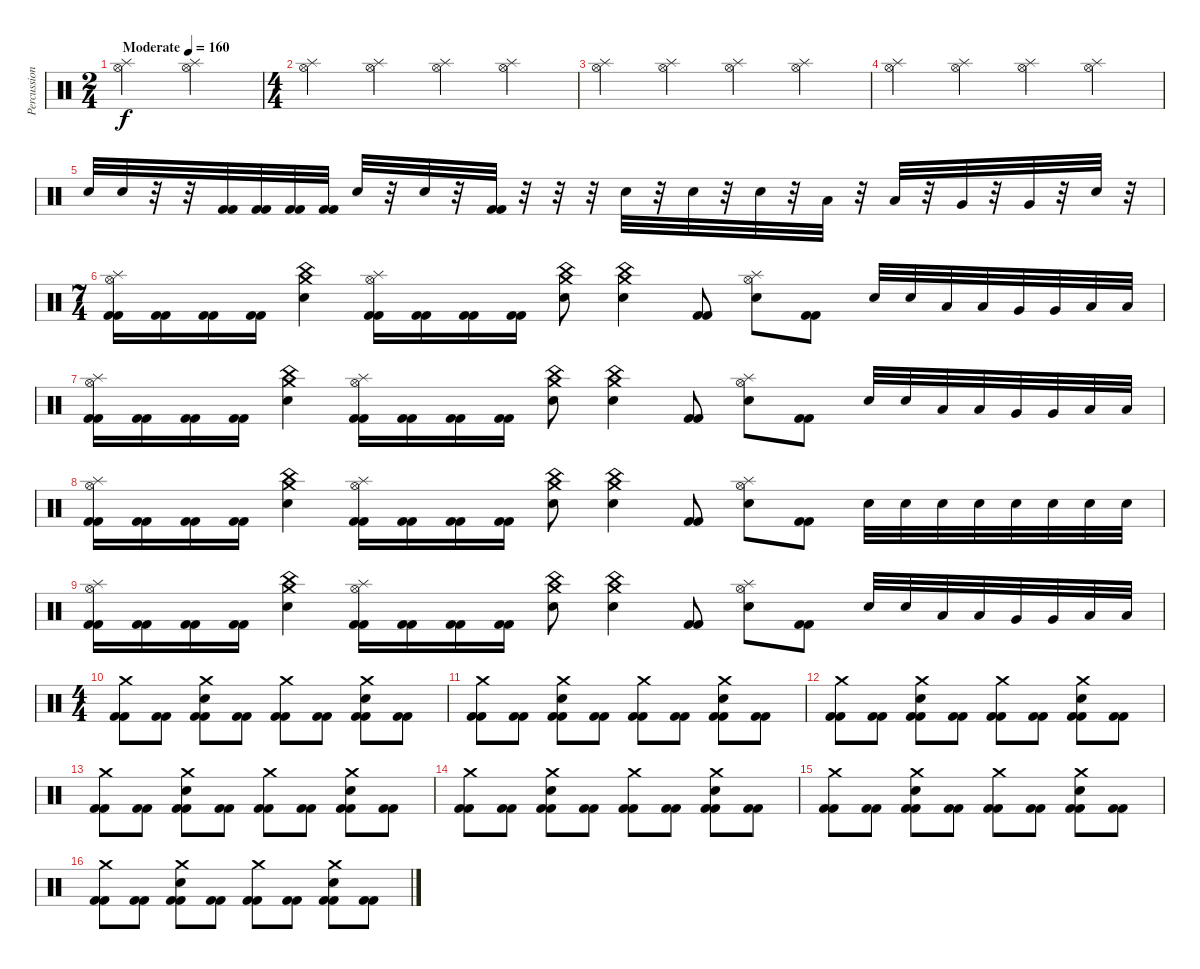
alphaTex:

\track ("Percussion" "Percussion") {instrument percussion}
\staff {score}
\articulation defaults
\ts (2 4)
\tempo (160 "Moderate")
\clef neutral
\ks c
("Hi-Hat (open)" "Splash (hit)").4{dy f} ("Hi-Hat (open)" "Splash (hit)").4 |
\ts (4 4)
("Splash (hit)" "Hi-Hat (open)").4 ("Splash (hit)" "Hi-Hat (open)").4 ("Splash (hit)" "Hi-Hat (open)").4 ("Splash (hit)" "Hi-Hat (open)").4 |
("Splash (hit)" "Hi-Hat (open)").4 ("Splash (hit)" "Hi-Hat (open)").4 ("Splash (hit)" "Hi-Hat (open)").4 ("Splash (hit)" "Hi-Hat (open)").4 |
("Splash (hit)" "Hi-Hat (open)").4 ("Splash (hit)" "Hi-Hat (open)").4 ("Splash (hit)" "Hi-Hat (open)").4 ("Splash (hit)" "Hi-Hat (open)").4 |
"Snare (hit) 2".32 "Snare (hit) 2".32 r.32 r.32 ("Kick (hit) 2" "Kick (hit) 2").32 ("Kick (hit) 2" "Kick (hit) 2").32 ("Kick (hit) 2" "Kick (hit) 2").32 ("Kick (hit) 2" "Kick (hit) 2").32 "Snare (hit) 2".32 r.32 "Snare (hit) 2".32 r.32 ("Kick (hit) 2" "Kick (hit) 2").32 r.32 r.32 r.32 "Electric Snare (hit)".32 r.32 "Electric Snare (hit)".32 r.32 "Electric Snare (hit)".32 r.32 "Low Tom (hit)".32 r.32 "Low Tom (hit)".32 r.32 "Very Low Tom (hit)".32 r.32 "Very Low Tom (hit)".32 r.32 "Electric Snare (hit)".32 r.32 |
\ts (7 4)
("Hi-Hat (open)" "Splash (hit)" "Kick (hit) 2" "Kick (hit) 2").16 ("Kick (hit) 2" "Kick (hit) 2").16 ("Kick (hit) 2" "Kick (hit) 2").16 ("Kick (hit) 2" "Kick (hit) 2").16 ("Crash medium (hit)" "China (hit)" "Electric Snare (hit)").4 ("Hi-Hat (open)" "Splash (hit)" "Kick (hit) 2" "Kick (hit) 2").16 ("Kick (hit) 2" "Kick (hit) 2").16 ("Kick (hit) 2" "Kick (hit) 2").16 ("Kick (hit) 2" "Kick (hit) 2").16 ("Electric Snare (hit)" "China (hit)" "Crash medium (hit)").8 ("Electric Snare (hit)" "China (hit)" "Crash medium (hit)").4 ("Kick (hit) 2" "Kick (hit) 2").8 ("Splash (hit)" "Hi-Hat (open)" "Electric Snare (hit)").8 ("Kick (hit) 2" "Kick (hit) 2").8 "Electric Snare (hit)".32 "Electric Snare (hit)".32 "Low Tom (hit)".32 "Low Tom (hit)".32 "Very Low Tom (hit)".32 "Very Low Tom (hit)".32 "Low Floor Tom (hit)".32 "Low Floor Tom (hit)".32 |
("Hi-Hat (open)" "Splash (hit)" "Kick (hit) 2" "Kick (hit) 2").16 ("Kick (hit) 2" "Kick (hit) 2").16 ("Kick (hit) 2" "Kick (hit) 2").16 ("Kick (hit) 2" "Kick (hit) 2").16 ("Crash medium (hit)" "China (hit)" "Electric Snare (hit)").4 ("Hi-Hat (open)" "Splash (hit)" "Kick (hit) 2" "Kick (hit) 2").16 ("Kick (hit) 2" "Kick (hit) 2").16 ("Kick (hit) 2" "Kick (hit) 2").16 ("Kick (hit) 2" "Kick (hit) 2").16 ("Electric Snare (hit)" "China (hit)" "Crash medium (hit)").8 ("Electric Snare (hit)" "China (hit)" "Crash medium (hit)").4 ("Kick (hit) 2" "Kick (hit) 2").8 ("Hi-Hat (open)" "Splash (hit)" "Electric Snare (hit)").8 ("Kick (hit) 2" "Kick (hit) 2").8 "Electric Snare (hit)".32 "Electric Snare (hit)".32 "Low Tom (hit)".32 "Low Tom (hit)".32 "Very Low Tom (hit)".32 "Very Low Tom (hit)".32 "Low Floor Tom (hit)".32 "Low Floor Tom (hit)".32 |
("Hi-Hat (open)" "Splash (hit)" "Kick (hit) 2" "Kick (hit) 2").16 ("Kick (hit) 2" "Kick (hit) 2").16 ("Kick (hit) 2" "Kick (hit) 2").16 ("Kick (hit) 2" "Kick (hit) 2").16 ("Crash medium (hit)" "China (hit)" "Electric Snare (hit)").4 ("Hi-Hat (open)" "Splash (hit)" "Kick (hit) 2" "Kick (hit) 2").16 ("Kick (hit) 2" "Kick (hit) 2").16 ("Kick (hit) 2" "Kick (hit) 2").16 ("Kick (hit) 2" "Kick (hit) 2").16 ("Electric Snare (hit)" "China (hit)" "Crash medium (hit)").8 ("Electric Snare (hit)" "China (hit)" "Crash medium (hit)").4 ("Kick (hit) 2" "Kick (hit) 2").8 ("Hi-Hat (open)" "Splash (hit)" "Electric Snare (hit)").8 ("Kick (hit) 2" "Kick (hit) 2").8 "Electric Snare (hit)".32 "Electric Snare (hit)".32 "Electric Snare (hit)".32 "Electric Snare (hit)".32 "Electric Snare (hit)".32 "Electric Snare (hit)".32 "Electric Snare (hit)".32 "Electric Snare (hit)".32 |
("Hi-Hat (open)" "Splash (hit)" "Kick (hit) 2" "Kick (hit) 2").16 ("Kick (hit) 2" "Kick (hit) 2").16 ("Kick (hit) 2" "Kick (hit) 2").16 ("Kick (hit) 2" "Kick (hit) 2").16 ("Crash medium (hit)" "China (hit)" "Electric Snare (hit)").4 ("Hi-Hat (open)" "Splash (hit)" "Kick (hit) 2" "Kick (hit) 2").16 ("Kick (hit) 2" "Kick (hit) 2").16 ("Kick (hit) 2" "Kick (hit) 2").16 ("Kick (hit) 2" "Kick (hit) 2").16 ("Electric Snare (hit)" "China (hit)" "Crash medium (hit)").8 ("Electric Snare (hit)" "China (hit)" "Crash medium (hit)").4 ("Kick (hit) 2" "Kick (hit) 2").8 ("Hi-Hat (open)" "Splash (hit)" "Electric Snare (hit)").8 ("Kick (hit) 2" "Kick (hit) 2").8 "Electric Snare (hit)".32 "Electric Snare (hit)".32 "Low Tom (hit)".32 "Low Tom (hit)".32 "Very Low Tom (hit)".32 "Very Low Tom (hit)".32 "Low Floor Tom (hit)".32 "Low Floor Tom (hit)".32 |
\ts (4 4)
("Crash medium (hit)" "Kick (hit) 2" "Kick (hit) 2").8 ("Kick (hit) 2" "Kick (hit) 2").8 ("Crash medium (hit)" "Electric Snare (hit)" "Kick (hit) 2" "Kick (hit) 2").8 ("Kick (hit) 2" "Kick (hit) 2").8 ("Crash medium (hit)" "Kick (hit) 2" "Kick (hit) 2").8 ("Kick (hit) 2" "Kick (hit) 2").8 ("Crash medium (hit)" "Electric Snare (hit)" "Kick (hit) 2" "Kick (hit) 2").8 ("Kick (hit) 2" "Kick (hit) 2").8 |
("Crash medium (hit)" "Kick (hit) 2" "Kick (hit) 2").8 ("Kick (hit) 2" "Kick (hit) 2").8 ("Crash medium (hit)" "Electric Snare (hit)" "Kick (hit) 2" "Kick (hit) 2").8 ("Kick (hit) 2" "Kick (hit) 2").8 ("Crash medium (hit)" "Kick (hit) 2" "Kick (hit) 2").8 ("Kick (hit) 2" "Kick (hit) 2").8 ("Crash medium (hit)" "Electric Snare (hit)" "Kick (hit) 2" "Kick (hit) 2").8 ("Kick (hit) 2" "Kick (hit) 2").8 |
("Crash medium (hit)" "Kick (hit) 2" "Kick (hit) 2").8 ("Kick (hit) 2" "Kick (hit) 2").8 ("Crash medium (hit)" "Electric Snare (hit)" "Kick (hit) 2" "Kick (hit) 2").8 ("Kick (hit) 2" "Kick (hit) 2").8 ("Crash medium (hit)" "Kick (hit) 2" "Kick (hit) 2").8 ("Kick (hit) 2" "Kick (hit) 2").8 ("Crash medium (hit)" "Electric Snare (hit)" "Kick (hit) 2" "Kick (hit) 2").8 ("Kick (hit) 2" "Kick (hit) 2").8 |
("Crash medium (hit)" "Kick (hit) 2" "Kick (hit) 2").8 ("Kick (hit) 2" "Kick (hit) 2").8 ("Crash medium (hit)" "Electric Snare (hit)" "Kick (hit) 2" "Kick (hit) 2").8 ("Kick (hit) 2" "Kick (hit) 2").8 ("Crash medium (hit)" "Kick (hit) 2" "Kick (hit) 2").8 ("Kick (hit) 2" "Kick (hit) 2").8 ("Crash medium (hit)" "Electric Snare (hit)" "Kick (hit) 2" "Kick (hit) 2").8 ("Kick (hit) 2" "Kick (hit) 2").8 |
("Crash medium (hit)" "Kick (hit) 2" "Kick (hit) 2").8 ("Kick (hit) 2" "Kick (hit) 2").8 ("Crash medium (hit)" "Electric Snare (hit)" "Kick (hit) 2" "Kick (hit) 2").8 ("Kick (hit) 2" "Kick (hit) 2").8 ("Crash medium (hit)" "Kick (hit) 2" "Kick (hit) 2").8 ("Kick (hit) 2" "Kick (hit) 2").8 ("Crash medium (hit)" "Electric Snare (hit)" "Kick (hit) 2" "Kick (hit) 2").8 ("Kick (hit) 2" "Kick (hit) 2").8 |
("Crash medium (hit)" "Kick (hit) 2" "Kick (hit) 2").8 ("Kick (hit) 2" "Kick (hit) 2").8 ("Crash medium (hit)" "Electric Snare (hit)" "Kick (hit) 2" "Kick (hit) 2").8 ("Kick (hit) 2" "Kick (hit) 2").8 ("Crash medium (hit)" "Kick (hit) 2" "Kick (hit) 2").8 ("Kick (hit) 2" "Kick (hit) 2").8 ("Crash medium (hit)" "Electric Snare (hit)" "Kick (hit) 2" "Kick (hit) 2").8 ("Kick (hit) 2" "Kick (hit) 2").8 |
("Crash medium (hit)" "Kick (hit) 2" "Kick (hit) 2").8 ("Kick (hit) 2" "Kick (hit) 2").8 ("Crash medium (hit)" "Electric Snare (hit)" "Kick (hit) 2" "Kick (hit) 2").8 ("Kick (hit) 2" "Kick (hit) 2").8 ("Crash medium (hit)" "Kick (hit) 2" "Kick (hit) 2").8 ("Kick (hit) 2" "Kick (hit) 2").8 ("Crash medium (hit)" "Electric Snare (hit)" "Kick (hit) 2" "Kick (hit) 2").8 ("Kick (hit) 2" "Kick (hit) 2").8
